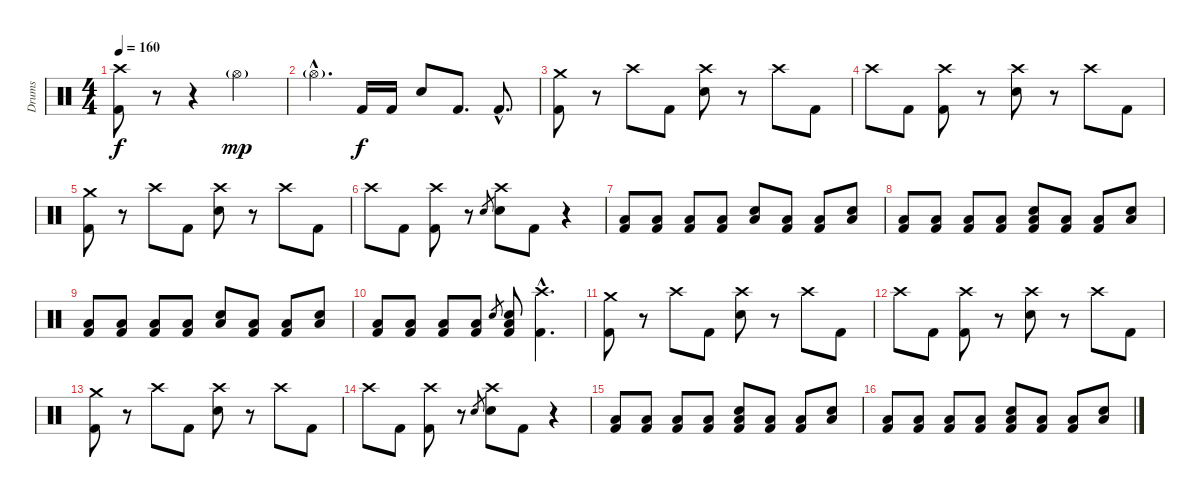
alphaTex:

\track ("Drums" "Drums") {instrument percussion}
\staff {score}
\articulation defaults
\ts (4 4)
\tempo 160
\clef neutral
\ks c
("Crash high (hit)" "Kick (hit) 2").8{dy f} r.8 r.4 "Hi-Hat (open)"{g}.2{dy mp} |
"Hi-Hat (open)"{g hac}.4{d} "Kick (hit) 2".16{dy f} "Kick (hit) 2".16 "Snare (hit) 2".8 "Kick (hit) 2".8{d} "Kick (hit) 2"{hac}.8{d} |
("Crash medium (hit)" "Kick (hit) 2").8 r.8 "Crash high (hit)".8 "Kick (hit) 2".8 ("Crash high (hit)" "Snare (hit) 2").8 r.8 "Crash high (hit)".8 "Kick (hit) 2".8 |
"Crash high (hit)".8 "Kick (hit) 2".8 ("Crash high (hit)" "Kick (hit) 2").8 r.8 ("Crash high (hit)" "Snare (hit) 2").8 r.8 "Crash high (hit)".8 "Kick (hit) 2".8 |
("Crash medium (hit)" "Kick (hit) 2").8 r.8 "Crash high (hit)".8 "Kick (hit) 2".8 ("Crash high (hit)" "Snare (hit) 2").8 r.8 "Crash high (hit)".8 "Kick (hit) 2".8 |
"Crash high (hit)".8 "Kick (hit) 2".8 ("Crash high (hit)" "Kick (hit) 2").8 r.8 "Snare (hit) 2".8{gr} ("Crash high (hit)" "Snare (hit) 2").8 "Kick (hit) 2".8 r.4 |
("Low Floor Tom (hit)" "Kick (hit) 2").8 ("Low Tom (hit)" "Kick (hit) 2").8 ("Low Floor Tom (hit)" "Kick (hit) 2").8 ("Low Floor Tom (hit)" "Kick (hit) 2").8 ("Snare (hit) 2" "Low Tom (hit)").8 ("Low Floor Tom (hit)" "Kick (hit) 2").8 ("Low Floor Tom (hit)" "Kick (hit) 2").8 ("Snare (hit) 2" "Low Tom (hit)").8 |
("Low Floor Tom (hit)" "Kick (hit) 2").8 ("Low Tom (hit)" "Kick (hit) 2").8 ("Low Floor Tom (hit)" "Kick (hit) 2").8 ("Low Floor Tom (hit)" "Kick (hit) 2").8 ("Snare (hit) 2" "Low Tom (hit)" "Kick (hit) 2").8 ("Low Floor Tom (hit)" "Kick (hit) 2").8 ("Low Floor Tom (hit)" "Kick (hit) 2").8 ("Snare (hit) 2" "Low Tom (hit)").8 |
("Low Floor Tom (hit)" "Kick (hit) 2").8 ("Low Tom (hit)" "Kick (hit) 2").8 ("Low Floor Tom (hit)" "Kick (hit) 2").8 ("Low Floor Tom (hit)" "Kick (hit) 2").8 ("Snare (hit) 2" "Low Tom (hit)").8 ("Low Floor Tom (hit)" "Kick (hit) 2").8 ("Low Floor Tom (hit)" "Kick (hit) 2").8 ("Snare (hit) 2" "Low Tom (hit)").8 |
("Low Floor Tom (hit)" "Kick (hit) 2").8 ("Low Tom (hit)" "Kick (hit) 2").8 ("Low Floor Tom (hit)" "Kick (hit) 2").8 ("Low Floor Tom (hit)" "Kick (hit) 2").8 "Snare (hit) 2".8{gr} ("Snare (hit) 2" "Low Tom (hit)" "Kick (hit) 2").8 ("Crash high (hit)"{hac} "Kick (hit) 2"{hac}).4{d} |
("Crash medium (hit)" "Kick (hit) 2").8 r.8 "Crash high (hit)".8 "Kick (hit) 2".8 ("Crash high (hit)" "Snare (hit) 2").8 r.8 "Crash high (hit)".8 "Kick (hit) 2".8 |
"Crash high (hit)".8 "Kick (hit) 2".8 ("Crash high (hit)" "Kick (hit) 2").8 r.8 ("Crash high (hit)" "Snare (hit) 2").8 r.8 "Crash high (hit)".8 "Kick (hit) 2".8 |
("Crash medium (hit)" "Kick (hit) 2").8 r.8 "Crash high (hit)".8 "Kick (hit) 2".8 ("Crash high (hit)" "Snare (hit) 2").8 r.8 "Crash high (hit)".8 "Kick (hit) 2".8 |
"Crash high (hit)".8 "Kick (hit) 2".8 ("Crash high (hit)" "Kick (hit) 2").8 r.8 "Snare (hit) 2".8{gr} ("Crash high (hit)" "Snare (hit) 2").8 "Kick (hit) 2".8 r.4 |
("Low Floor Tom (hit)" "Kick (hit) 2").8 ("Low Tom (hit)" "Kick (hit) 2").8 ("Low Floor Tom (hit)" "Kick (hit) 2").8 ("Low Floor Tom (hit)" "Kick (hit) 2").8 ("Snare (hit) 2" "Low Tom (hit)" "Kick (hit) 2").8 ("Low Floor Tom (hit)" "Kick (hit) 2").8 ("Low Floor Tom (hit)" "Kick (hit) 2").8 ("Snare (hit) 2" "Low Tom (hit)").8 |
("Low Floor Tom (hit)" "Kick (hit) 2").8 ("Low Tom (hit)" "Kick (hit) 2").8 ("Low Floor Tom (hit)" "Kick (hit) 2").8 ("Low Floor Tom (hit)" "Kick (hit) 2").8 ("Snare (hit) 2" "Low Tom (hit)" "Kick (hit) 2").8 ("Low Floor Tom (hit)" "Kick (hit) 2").8 ("Low Floor Tom (hit)" "Kick (hit) 2").8 ("Snare (hit) 2" "Low Tom (hit)").8
